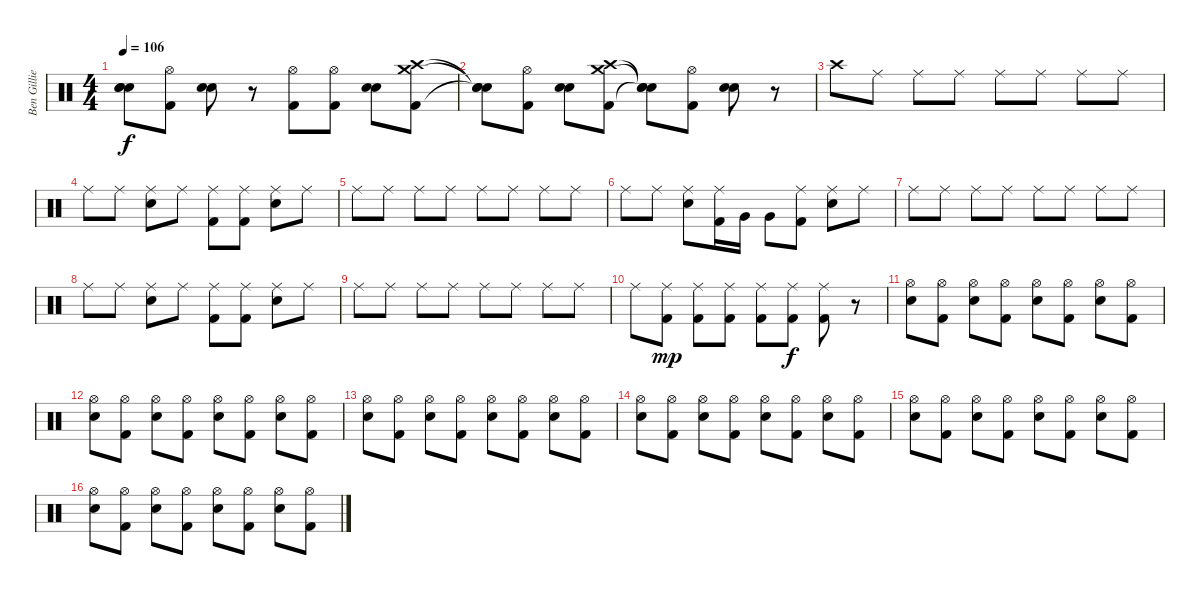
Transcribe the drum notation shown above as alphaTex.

\track ("Ben Gillies" "Ben Gillie") {instrument percussion}
\staff {score}
\articulation defaults
\ts (4 4)
\tempo 106
\clef neutral
\ks c
("Snare (hit)"{t} "Snare (hit)"{t} "Snare (hit)"{t}).8{dy f} ("Hi-Hat (open)" "Kick (hit) 2").8 ("Electric Snare (hit)" "Electric Snare (hit)").8 r.8 ("Hi-Hat (open)" "Kick (hit) 2").8 ("Hi-Hat (open)" "Kick (hit) 2").8 ("Electric Snare (hit)" "Electric Snare (hit)").8 ("Crash high (hit)" "Crash medium (hit)" "Kick (hit) 2").8 |
("Snare (hit)"{t} "Snare (hit)"{t} "Snare (hit)"{t}).8 ("Hi-Hat (open)" "Kick (hit) 2").8 ("Electric Snare (hit)" "Electric Snare (hit)").8 ("Crash high (hit)" "Crash medium (hit)" "Kick (hit) 2").8 ("Snare (hit)"{t} "Snare (hit)"{t} "Snare (hit)"{t}).8 ("Hi-Hat (open)" "Kick (hit) 2").8 ("Electric Snare (hit)" "Electric Snare (hit)").8 r.8 |
"Crash high (hit)".8 "Ride (middle)".8 "Ride (middle)".8 "Ride (middle)".8 "Ride (middle)".8 "Ride (middle)".8 "Ride (middle)".8 "Ride (middle)".8 |
"Ride (middle)".8 "Ride (middle)".8 ("Ride (middle)" "Electric Snare (hit)").8 "Ride (middle)".8 ("Ride (middle)" "Kick (hit) 2").8 ("Ride (middle)" "Kick (hit) 2").8 ("Ride (middle)" "Electric Snare (hit)").8 "Ride (middle)".8 |
"Ride (middle)".8 "Ride (middle)".8 "Ride (middle)".8 "Ride (middle)".8 "Ride (middle)".8 "Ride (middle)".8 "Ride (middle)".8 "Ride (middle)".8 |
"Ride (middle)".8 "Ride (middle)".8 ("Ride (middle)" "Electric Snare (hit)").8 ("Ride (middle)" "Kick (hit) 2").16 "Very Low Tom (hit)".16 "Very Low Tom (hit)".8 ("Ride (middle)" "Kick (hit) 2").8 ("Ride (middle)" "Electric Snare (hit)").8 "Ride (middle)".8 |
"Ride (middle)".8 "Ride (middle)".8 "Ride (middle)".8 "Ride (middle)".8 "Ride (middle)".8 "Ride (middle)".8 "Ride (middle)".8 "Ride (middle)".8 |
"Ride (middle)".8 "Ride (middle)".8 ("Ride (middle)" "Electric Snare (hit)").8 "Ride (middle)".8 ("Ride (middle)" "Kick (hit) 2").8 ("Ride (middle)" "Kick (hit) 2").8 ("Ride (middle)" "Electric Snare (hit)").8 "Ride (middle)".8 |
"Ride (middle)".8 "Ride (middle)".8 "Ride (middle)".8 "Ride (middle)".8 "Ride (middle)".8 "Ride (middle)".8 "Ride (middle)".8 "Ride (middle)".8 |
"Ride (middle)".8 ("Ride (middle)" "Kick (hit) 2").8{dy mp} ("Ride (middle)" "Kick (hit) 2").8 ("Ride (middle)" "Kick (hit) 2").8 ("Ride (middle)" "Kick (hit) 2").8 ("Ride (middle)" "Kick (hit) 2").8{dy f} ("Ride (middle)" "Kick (hit) 2").8 r.8 |
("Hi-Hat (open)" "Electric Snare (hit)").8 ("Hi-Hat (open)" "Kick (hit) 2").8 ("Hi-Hat (open)" "Electric Snare (hit)").8 ("Hi-Hat (open)" "Kick (hit) 2").8 ("Hi-Hat (open)" "Electric Snare (hit)").8 ("Hi-Hat (open)" "Kick (hit) 2").8 ("Hi-Hat (open)" "Electric Snare (hit)").8 ("Hi-Hat (open)" "Kick (hit) 2").8 |
("Hi-Hat (open)" "Electric Snare (hit)").8 ("Hi-Hat (open)" "Kick (hit) 2").8 ("Hi-Hat (open)" "Electric Snare (hit)").8 ("Hi-Hat (open)" "Kick (hit) 2").8 ("Hi-Hat (open)" "Electric Snare (hit)").8 ("Hi-Hat (open)" "Kick (hit) 2").8 ("Hi-Hat (open)" "Electric Snare (hit)").8 ("Hi-Hat (open)" "Kick (hit) 2").8 |
("Hi-Hat (open)" "Electric Snare (hit)").8 ("Hi-Hat (open)" "Kick (hit) 2").8 ("Hi-Hat (open)" "Electric Snare (hit)").8 ("Hi-Hat (open)" "Kick (hit) 2").8 ("Hi-Hat (open)" "Electric Snare (hit)").8 ("Hi-Hat (open)" "Kick (hit) 2").8 ("Hi-Hat (open)" "Electric Snare (hit)").8 ("Hi-Hat (open)" "Kick (hit) 2").8 |
("Hi-Hat (open)" "Electric Snare (hit)").8 ("Hi-Hat (open)" "Kick (hit) 2").8 ("Hi-Hat (open)" "Electric Snare (hit)").8 ("Hi-Hat (open)" "Kick (hit) 2").8 ("Hi-Hat (open)" "Electric Snare (hit)").8 ("Hi-Hat (open)" "Kick (hit) 2").8 ("Hi-Hat (open)" "Electric Snare (hit)").8 ("Hi-Hat (open)" "Kick (hit) 2").8 |
("Hi-Hat (open)" "Electric Snare (hit)").8 ("Hi-Hat (open)" "Kick (hit) 2").8 ("Hi-Hat (open)" "Electric Snare (hit)").8 ("Hi-Hat (open)" "Kick (hit) 2").8 ("Hi-Hat (open)" "Electric Snare (hit)").8 ("Hi-Hat (open)" "Kick (hit) 2").8 ("Hi-Hat (open)" "Electric Snare (hit)").8 ("Hi-Hat (open)" "Kick (hit) 2").8 |
("Hi-Hat (open)" "Electric Snare (hit)").8 ("Hi-Hat (open)" "Kick (hit) 2").8 ("Hi-Hat (open)" "Electric Snare (hit)").8 ("Hi-Hat (open)" "Kick (hit) 2").8 ("Hi-Hat (open)" "Electric Snare (hit)").8 ("Hi-Hat (open)" "Kick (hit) 2").8 ("Hi-Hat (open)" "Electric Snare (hit)").8 ("Hi-Hat (open)" "Kick (hit) 2").8
